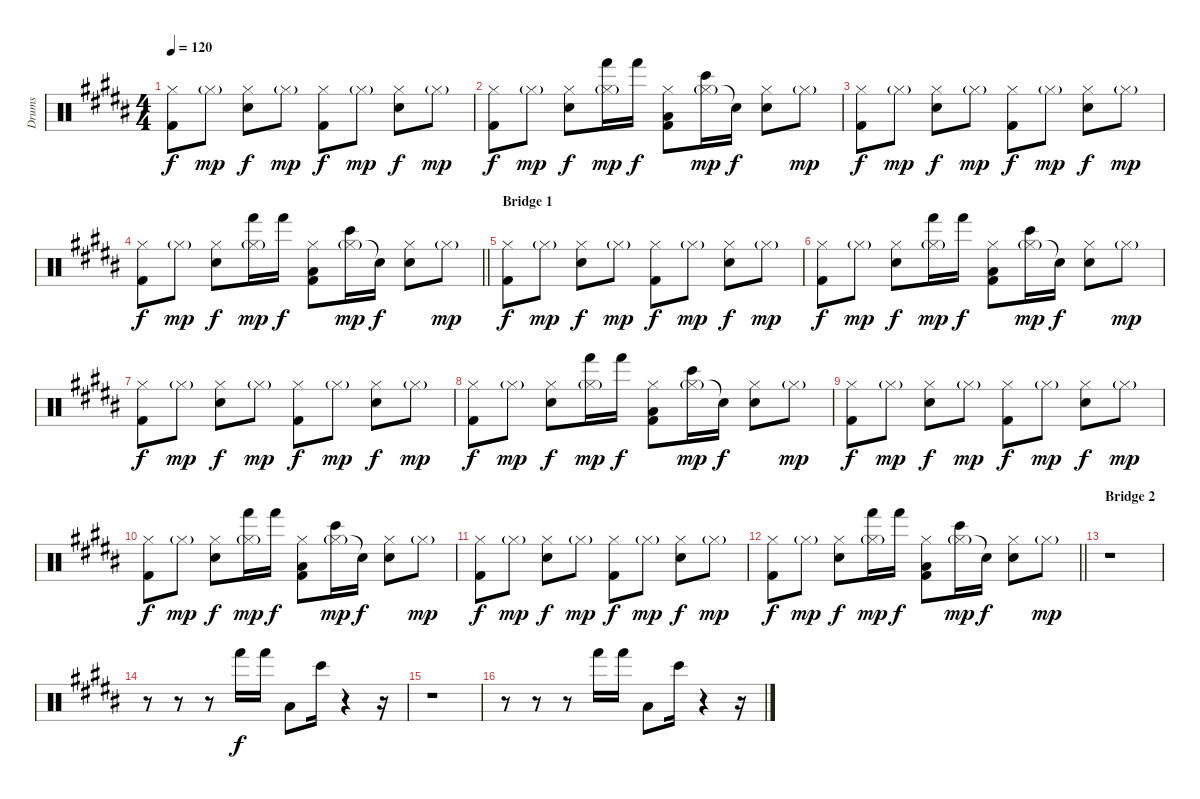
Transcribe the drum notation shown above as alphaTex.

\track ("Drums" "Drums") {instrument percussion}
\staff {score}
\articulation defaults
\ts (4 4)
\tempo 120
\clef neutral
\ks g#minor
("Hi-Hat (closed)" "Kick (hit) 2").8{dy f} "Hi-Hat (closed)"{g}.8{dy mp} ("Hi-Hat (closed)" "Electric Snare (hit)").8{dy f} "Hi-Hat (closed)"{g}.8{dy mp} ("Hi-Hat (closed)" "Kick (hit) 2").8{dy f} "Hi-Hat (closed)"{g}.8{dy mp} ("Hi-Hat (closed)" "Electric Snare (hit)").8{dy f} "Hi-Hat (closed)"{g}.8{dy mp} |
("Hi-Hat (closed)" "Kick (hit) 2").8{dy f} "Hi-Hat (closed)"{g}.8{dy mp} ("Hi-Hat (closed)" "Electric Snare (hit)").8{dy f} ("Hi-Hat (closed)"{g} "Hand (hit)").16{dy mp} "Hand (hit)".16{dy f} ("Hi-Hat (closed)" "Low Tom (hit)" "Kick (hit) 2").8 ("Hi-Hat (closed)"{g} "Bongo High (hit)").16{dy mp} "Snare (hit)"{t}.16{dy f} ("Hi-Hat (closed)" "Electric Snare (hit)").8 "Hi-Hat (closed)"{g}.8{dy mp} |
("Hi-Hat (closed)" "Kick (hit) 2").8{dy f} "Hi-Hat (closed)"{g}.8{dy mp} ("Hi-Hat (closed)" "Electric Snare (hit)").8{dy f} "Hi-Hat (closed)"{g}.8{dy mp} ("Hi-Hat (closed)" "Kick (hit) 2").8{dy f} "Hi-Hat (closed)"{g}.8{dy mp} ("Hi-Hat (closed)" "Electric Snare (hit)").8{dy f} "Hi-Hat (closed)"{g}.8{dy mp} |
\barLineRight lightlight
("Hi-Hat (closed)" "Kick (hit) 2").8{dy f} "Hi-Hat (closed)"{g}.8{dy mp} ("Hi-Hat (closed)" "Electric Snare (hit)").8{dy f} ("Hi-Hat (closed)"{g} "Hand (hit)").16{dy mp} "Hand (hit)".16{dy f} ("Hi-Hat (closed)" "Low Tom (hit)" "Kick (hit) 2").8 ("Hi-Hat (closed)"{g} "Bongo High (hit)").16{dy mp} "Snare (hit)"{t}.16{dy f} ("Hi-Hat (closed)" "Electric Snare (hit)").8 "Hi-Hat (closed)"{g}.8{dy mp} |
\section ("" "Bridge 1")
("Hi-Hat (closed)" "Kick (hit) 2").8{dy f} "Hi-Hat (closed)"{g}.8{dy mp} ("Hi-Hat (closed)" "Electric Snare (hit)").8{dy f} "Hi-Hat (closed)"{g}.8{dy mp} ("Hi-Hat (closed)" "Kick (hit) 2").8{dy f} "Hi-Hat (closed)"{g}.8{dy mp} ("Hi-Hat (closed)" "Electric Snare (hit)").8{dy f} "Hi-Hat (closed)"{g}.8{dy mp} |
("Hi-Hat (closed)" "Kick (hit) 2").8{dy f} "Hi-Hat (closed)"{g}.8{dy mp} ("Hi-Hat (closed)" "Electric Snare (hit)").8{dy f} ("Hi-Hat (closed)"{g} "Hand (hit)").16{dy mp} "Hand (hit)".16{dy f} ("Hi-Hat (closed)" "Low Tom (hit)" "Kick (hit) 2").8 ("Hi-Hat (closed)"{g} "Bongo High (hit)").16{dy mp} "Snare (hit)"{t}.16{dy f} ("Hi-Hat (closed)" "Electric Snare (hit)").8 "Hi-Hat (closed)"{g}.8{dy mp} |
("Hi-Hat (closed)" "Kick (hit) 2").8{dy f} "Hi-Hat (closed)"{g}.8{dy mp} ("Hi-Hat (closed)" "Electric Snare (hit)").8{dy f} "Hi-Hat (closed)"{g}.8{dy mp} ("Hi-Hat (closed)" "Kick (hit) 2").8{dy f} "Hi-Hat (closed)"{g}.8{dy mp} ("Hi-Hat (closed)" "Electric Snare (hit)").8{dy f} "Hi-Hat (closed)"{g}.8{dy mp} |
("Hi-Hat (closed)" "Kick (hit) 2").8{dy f} "Hi-Hat (closed)"{g}.8{dy mp} ("Hi-Hat (closed)" "Electric Snare (hit)").8{dy f} ("Hi-Hat (closed)"{g} "Hand (hit)").16{dy mp} "Hand (hit)".16{dy f} ("Hi-Hat (closed)" "Low Tom (hit)" "Kick (hit) 2").8 ("Hi-Hat (closed)"{g} "Bongo High (hit)").16{dy mp} "Snare (hit)"{t}.16{dy f} ("Hi-Hat (closed)" "Electric Snare (hit)").8 "Hi-Hat (closed)"{g}.8{dy mp} |
("Hi-Hat (closed)" "Kick (hit) 2").8{dy f} "Hi-Hat (closed)"{g}.8{dy mp} ("Hi-Hat (closed)" "Electric Snare (hit)").8{dy f} "Hi-Hat (closed)"{g}.8{dy mp} ("Hi-Hat (closed)" "Kick (hit) 2").8{dy f} "Hi-Hat (closed)"{g}.8{dy mp} ("Hi-Hat (closed)" "Electric Snare (hit)").8{dy f} "Hi-Hat (closed)"{g}.8{dy mp} |
("Hi-Hat (closed)" "Kick (hit) 2").8{dy f} "Hi-Hat (closed)"{g}.8{dy mp} ("Hi-Hat (closed)" "Electric Snare (hit)").8{dy f} ("Hi-Hat (closed)"{g} "Hand (hit)").16{dy mp} "Hand (hit)".16{dy f} ("Hi-Hat (closed)" "Low Tom (hit)" "Kick (hit) 2").8 ("Hi-Hat (closed)"{g} "Bongo High (hit)").16{dy mp} "Snare (hit)"{t}.16{dy f} ("Hi-Hat (closed)" "Electric Snare (hit)").8 "Hi-Hat (closed)"{g}.8{dy mp} |
("Hi-Hat (closed)" "Kick (hit) 2").8{dy f} "Hi-Hat (closed)"{g}.8{dy mp} ("Hi-Hat (closed)" "Electric Snare (hit)").8{dy f} "Hi-Hat (closed)"{g}.8{dy mp} ("Hi-Hat (closed)" "Kick (hit) 2").8{dy f} "Hi-Hat (closed)"{g}.8{dy mp} ("Hi-Hat (closed)" "Electric Snare (hit)").8{dy f} "Hi-Hat (closed)"{g}.8{dy mp} |
\barLineRight lightlight
("Hi-Hat (closed)" "Kick (hit) 2").8{dy f} "Hi-Hat (closed)"{g}.8{dy mp} ("Hi-Hat (closed)" "Electric Snare (hit)").8{dy f} ("Hi-Hat (closed)"{g} "Hand (hit)").16{dy mp} "Hand (hit)".16{dy f} ("Hi-Hat (closed)" "Low Tom (hit)" "Kick (hit) 2").8 ("Hi-Hat (closed)"{g} "Bongo High (hit)").16{dy mp} "Snare (hit)"{t}.16{dy f} ("Hi-Hat (closed)" "Electric Snare (hit)").8 "Hi-Hat (closed)"{g}.8{dy mp} |
\section ("" "Bridge 2")
r.1 |
r.8 r.8 r.8 "Hand (hit)".16{dy f} "Hand (hit)".16 "Low Tom (hit)".8 "Bongo High (hit)".16 r.4 r.16 |
r.1 |
r.8 r.8 r.8 "Hand (hit)".16 "Hand (hit)".16 "Low Tom (hit)".8 "Bongo High (hit)".16 r.4 r.16
